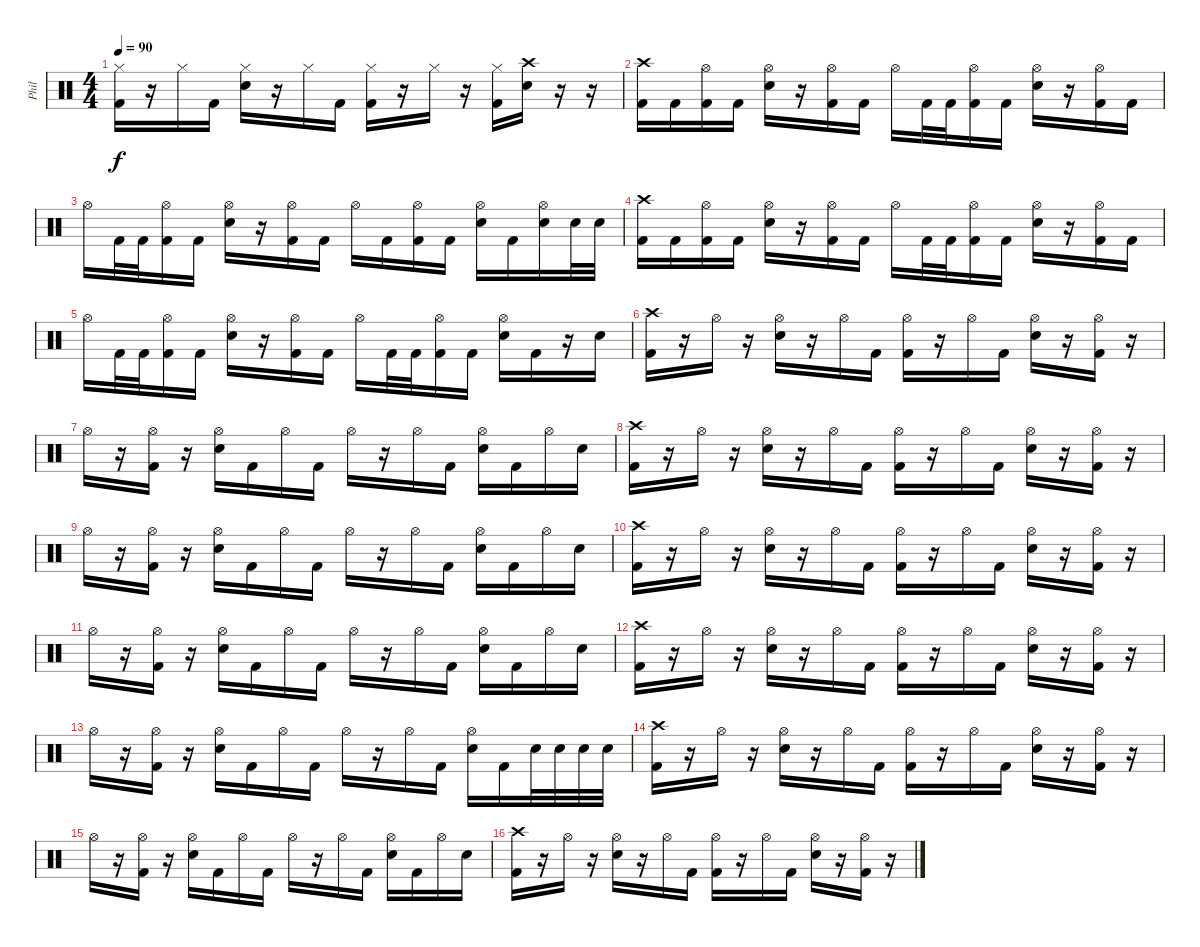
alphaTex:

\track ("Phil" "Phil") {instrument percussion}
\staff {score}
\articulation defaults
\ts (4 4)
\tempo 90
\clef neutral
\ks c
("Hi-Hat (closed)" "Kick (hit) 2").16{dy f} r.16 "Hi-Hat (closed)".16 "Kick (hit) 2".16 ("Hi-Hat (closed)" "Electric Snare (hit)").16 r.16 "Hi-Hat (closed)".16 "Kick (hit) 2".16 ("Hi-Hat (closed)" "Kick (hit) 2").16 r.16 "Hi-Hat (closed)".16 r.16 ("Hi-Hat (closed)" "Kick (hit) 2").16 ("Crash high (hit)" "Electric Snare (hit)").16 r.16 r.16 |
("Crash high (hit)" "Kick (hit) 2").16 "Kick (hit) 2".16 ("Hi-Hat (open)" "Kick (hit) 2").16 "Kick (hit) 2".16 ("Hi-Hat (open)" "Electric Snare (hit)").16 r.16 ("Hi-Hat (open)" "Kick (hit) 2").16 "Kick (hit) 2".16 "Hi-Hat (open)".16 "Kick (hit) 2".32 "Kick (hit) 2".32 ("Hi-Hat (open)" "Kick (hit) 2").16 "Kick (hit) 2".16 ("Hi-Hat (open)" "Electric Snare (hit)").16 r.16 ("Hi-Hat (open)" "Kick (hit) 2").16 "Kick (hit) 2".16 |
"Hi-Hat (open)".16 "Kick (hit) 2".32 "Kick (hit) 2".32 ("Hi-Hat (open)" "Kick (hit) 2").16 "Kick (hit) 2".16 ("Hi-Hat (open)" "Electric Snare (hit)").16 r.16 ("Hi-Hat (open)" "Kick (hit) 2").16 "Kick (hit) 2".16 "Hi-Hat (open)".16 "Kick (hit) 2".16 ("Hi-Hat (open)" "Kick (hit) 2").16 "Kick (hit) 2".16 ("Hi-Hat (open)" "Electric Snare (hit)").16 "Kick (hit) 2".16 ("Hi-Hat (open)" "Electric Snare (hit)").16 "Electric Snare (hit)".32 "Electric Snare (hit)".32 |
("Crash high (hit)" "Kick (hit) 2").16 "Kick (hit) 2".16 ("Hi-Hat (open)" "Kick (hit) 2").16 "Kick (hit) 2".16 ("Hi-Hat (open)" "Electric Snare (hit)").16 r.16 ("Hi-Hat (open)" "Kick (hit) 2").16 "Kick (hit) 2".16 "Hi-Hat (open)".16 "Kick (hit) 2".32 "Kick (hit) 2".32 ("Hi-Hat (open)" "Kick (hit) 2").16 "Kick (hit) 2".16 ("Hi-Hat (open)" "Electric Snare (hit)").16 r.16 ("Hi-Hat (open)" "Kick (hit) 2").16 "Kick (hit) 2".16 |
"Hi-Hat (open)".16 "Kick (hit) 2".32 "Kick (hit) 2".32 ("Hi-Hat (open)" "Kick (hit) 2").16 "Kick (hit) 2".16 ("Hi-Hat (open)" "Electric Snare (hit)").16 r.16 ("Hi-Hat (open)" "Kick (hit) 2").16 "Kick (hit) 2".16 "Hi-Hat (open)".16 "Kick (hit) 2".32 "Kick (hit) 2".32 ("Hi-Hat (open)" "Kick (hit) 2").16 "Kick (hit) 2".16 ("Hi-Hat (open)" "Electric Snare (hit)").16 "Kick (hit) 2".16 r.16 "Electric Snare (hit)".16 |
("Crash high (hit)" "Kick (hit) 2").16 r.16 "Hi-Hat (open)".16 r.16 ("Hi-Hat (open)" "Electric Snare (hit)").16 r.16 "Hi-Hat (open)".16 "Kick (hit) 2".16 ("Hi-Hat (open)" "Kick (hit) 2").16 r.16 "Hi-Hat (open)".16 "Kick (hit) 2".16 ("Hi-Hat (open)" "Electric Snare (hit)").16 r.16 ("Hi-Hat (open)" "Kick (hit) 2").16 r.16 |
"Hi-Hat (open)".16 r.16 ("Hi-Hat (open)" "Kick (hit) 2").16 r.16 ("Hi-Hat (open)" "Electric Snare (hit)").16 "Kick (hit) 2".16 "Hi-Hat (open)".16 "Kick (hit) 2".16 "Hi-Hat (open)".16 r.16 "Hi-Hat (open)".16 "Kick (hit) 2".16 ("Hi-Hat (open)" "Electric Snare (hit)").16 "Kick (hit) 2".16 "Hi-Hat (open)".16 "Electric Snare (hit)".16 |
("Crash high (hit)" "Kick (hit) 2").16 r.16 "Hi-Hat (open)".16 r.16 ("Hi-Hat (open)" "Electric Snare (hit)").16 r.16 "Hi-Hat (open)".16 "Kick (hit) 2".16 ("Hi-Hat (open)" "Kick (hit) 2").16 r.16 "Hi-Hat (open)".16 "Kick (hit) 2".16 ("Hi-Hat (open)" "Electric Snare (hit)").16 r.16 ("Hi-Hat (open)" "Kick (hit) 2").16 r.16 |
"Hi-Hat (open)".16 r.16 ("Hi-Hat (open)" "Kick (hit) 2").16 r.16 ("Hi-Hat (open)" "Electric Snare (hit)").16 "Kick (hit) 2".16 "Hi-Hat (open)".16 "Kick (hit) 2".16 "Hi-Hat (open)".16 r.16 "Hi-Hat (open)".16 "Kick (hit) 2".16 ("Hi-Hat (open)" "Electric Snare (hit)").16 "Kick (hit) 2".16 "Hi-Hat (open)".16 "Electric Snare (hit)".16 |
("Crash high (hit)" "Kick (hit) 2").16 r.16 "Hi-Hat (open)".16 r.16 ("Hi-Hat (open)" "Electric Snare (hit)").16 r.16 "Hi-Hat (open)".16 "Kick (hit) 2".16 ("Hi-Hat (open)" "Kick (hit) 2").16 r.16 "Hi-Hat (open)".16 "Kick (hit) 2".16 ("Hi-Hat (open)" "Electric Snare (hit)").16 r.16 ("Hi-Hat (open)" "Kick (hit) 2").16 r.16 |
"Hi-Hat (open)".16 r.16 ("Hi-Hat (open)" "Kick (hit) 2").16 r.16 ("Hi-Hat (open)" "Electric Snare (hit)").16 "Kick (hit) 2".16 "Hi-Hat (open)".16 "Kick (hit) 2".16 "Hi-Hat (open)".16 r.16 "Hi-Hat (open)".16 "Kick (hit) 2".16 ("Hi-Hat (open)" "Electric Snare (hit)").16 "Kick (hit) 2".16 "Hi-Hat (open)".16 "Electric Snare (hit)".16 |
("Crash high (hit)" "Kick (hit) 2").16 r.16 "Hi-Hat (open)".16 r.16 ("Hi-Hat (open)" "Electric Snare (hit)").16 r.16 "Hi-Hat (open)".16 "Kick (hit) 2".16 ("Hi-Hat (open)" "Kick (hit) 2").16 r.16 "Hi-Hat (open)".16 "Kick (hit) 2".16 ("Hi-Hat (open)" "Electric Snare (hit)").16 r.16 ("Hi-Hat (open)" "Kick (hit) 2").16 r.16 |
"Hi-Hat (open)".16 r.16 ("Hi-Hat (open)" "Kick (hit) 2").16 r.16 ("Hi-Hat (open)" "Electric Snare (hit)").16 "Kick (hit) 2".16 "Hi-Hat (open)".16 "Kick (hit) 2".16 "Hi-Hat (open)".16 r.16 "Hi-Hat (open)".16 "Kick (hit) 2".16 ("Hi-Hat (open)" "Electric Snare (hit)").16 "Kick (hit) 2".16 "Electric Snare (hit)".32 "Electric Snare (hit)".32 "Electric Snare (hit)".32 "Electric Snare (hit)".32 |
("Crash high (hit)" "Kick (hit) 2").16 r.16 "Hi-Hat (open)".16 r.16 ("Hi-Hat (open)" "Electric Snare (hit)").16 r.16 "Hi-Hat (open)".16 "Kick (hit) 2".16 ("Hi-Hat (open)" "Kick (hit) 2").16 r.16 "Hi-Hat (open)".16 "Kick (hit) 2".16 ("Hi-Hat (open)" "Electric Snare (hit)").16 r.16 ("Hi-Hat (open)" "Kick (hit) 2").16 r.16 |
"Hi-Hat (open)".16 r.16 ("Hi-Hat (open)" "Kick (hit) 2").16 r.16 ("Hi-Hat (open)" "Electric Snare (hit)").16 "Kick (hit) 2".16 "Hi-Hat (open)".16 "Kick (hit) 2".16 "Hi-Hat (open)".16 r.16 "Hi-Hat (open)".16 "Kick (hit) 2".16 ("Hi-Hat (open)" "Electric Snare (hit)").16 "Kick (hit) 2".16 "Hi-Hat (open)".16 "Electric Snare (hit)".16 |
("Crash high (hit)" "Kick (hit) 2").16 r.16 "Hi-Hat (open)".16 r.16 ("Hi-Hat (open)" "Electric Snare (hit)").16 r.16 "Hi-Hat (open)".16 "Kick (hit) 2".16 ("Hi-Hat (open)" "Kick (hit) 2").16 r.16 "Hi-Hat (open)".16 "Kick (hit) 2".16 ("Hi-Hat (open)" "Electric Snare (hit)").16 r.16 ("Hi-Hat (open)" "Kick (hit) 2").16 r.16
